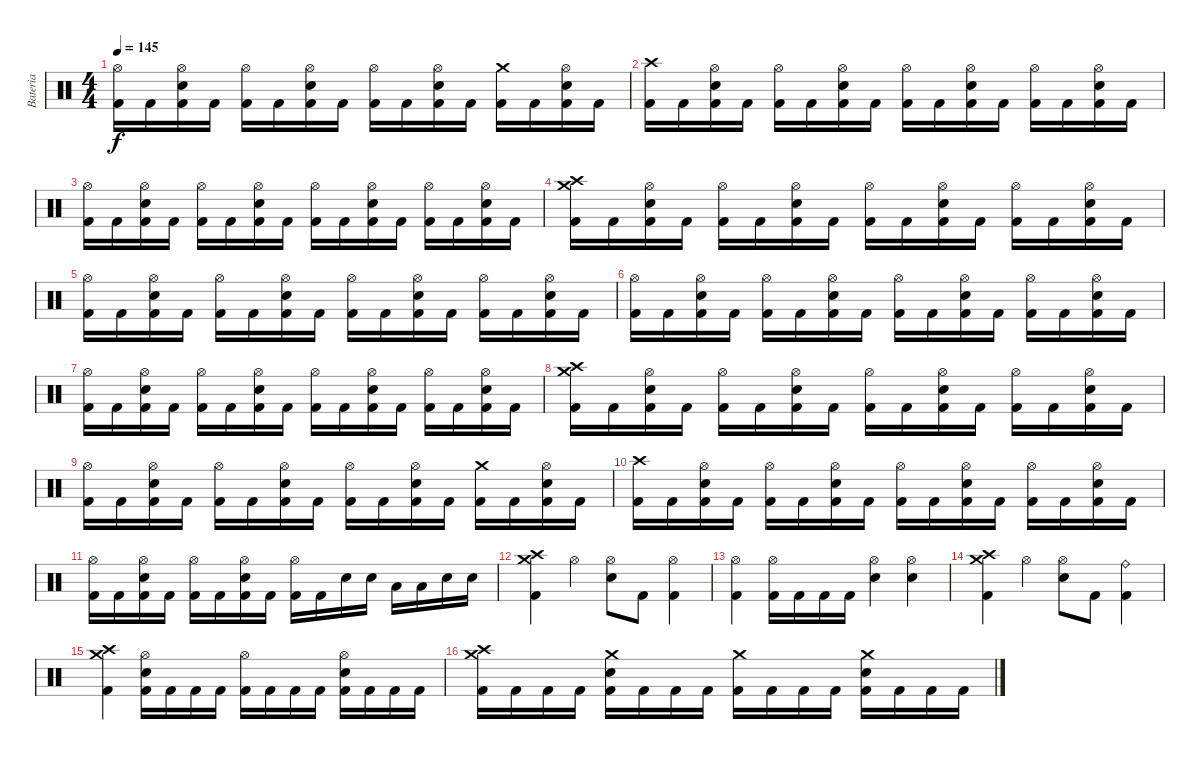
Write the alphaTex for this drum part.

\track ("Bateria" "Bateria") {instrument percussion}
\staff {score}
\articulation defaults
\ts (4 4)
\tempo 145
\clef neutral
\ks c
("Hi-Hat (open)" "Kick (hit) 2").16{dy f} "Kick (hit) 2".16 ("Hi-Hat (open)" "Snare (hit) 2" "Kick (hit) 2").16 "Kick (hit) 2".16 ("Hi-Hat (open)" "Kick (hit) 2").16 "Kick (hit) 2".16 ("Hi-Hat (open)" "Snare (hit) 2" "Kick (hit) 2").16 "Kick (hit) 2".16 ("Hi-Hat (open)" "Kick (hit) 2").16 "Kick (hit) 2".16 ("Hi-Hat (open)" "Snare (hit) 2" "Kick (hit) 2").16 "Kick (hit) 2".16 ("Crash medium (hit)" "Kick (hit) 2").16 "Kick (hit) 2".16 ("Hi-Hat (open)" "Snare (hit) 2" "Kick (hit) 2").16 "Kick (hit) 2".16 |
("Crash high (hit)" "Kick (hit) 2").16 "Kick (hit) 2".16 ("Hi-Hat (open)" "Snare (hit) 2" "Kick (hit) 2").16 "Kick (hit) 2".16 ("Hi-Hat (open)" "Kick (hit) 2").16 "Kick (hit) 2".16 ("Hi-Hat (open)" "Snare (hit) 2" "Kick (hit) 2").16 "Kick (hit) 2".16 ("Hi-Hat (open)" "Kick (hit) 2").16 "Kick (hit) 2".16 ("Hi-Hat (open)" "Snare (hit) 2" "Kick (hit) 2").16 "Kick (hit) 2".16 ("Hi-Hat (open)" "Kick (hit) 2").16 "Kick (hit) 2".16 ("Hi-Hat (open)" "Snare (hit) 2" "Kick (hit) 2").16 "Kick (hit) 2".16 |
("Hi-Hat (open)" "Kick (hit) 2").16 "Kick (hit) 2".16 ("Hi-Hat (open)" "Snare (hit) 2" "Kick (hit) 2").16 "Kick (hit) 2".16 ("Hi-Hat (open)" "Kick (hit) 2").16 "Kick (hit) 2".16 ("Hi-Hat (open)" "Snare (hit) 2" "Kick (hit) 2").16 "Kick (hit) 2".16 ("Hi-Hat (open)" "Kick (hit) 2").16 "Kick (hit) 2".16 ("Hi-Hat (open)" "Snare (hit) 2" "Kick (hit) 2").16 "Kick (hit) 2".16 ("Hi-Hat (open)" "Kick (hit) 2").16 "Kick (hit) 2".16 ("Hi-Hat (open)" "Snare (hit) 2" "Kick (hit) 2").16 "Kick (hit) 2".16 |
("Crash medium (hit)" "Crash high (hit)" "Kick (hit) 2").16 "Kick (hit) 2".16 ("Hi-Hat (open)" "Snare (hit) 2" "Kick (hit) 2").16 "Kick (hit) 2".16 ("Hi-Hat (open)" "Kick (hit) 2").16 "Kick (hit) 2".16 ("Hi-Hat (open)" "Snare (hit) 2" "Kick (hit) 2").16 "Kick (hit) 2".16 ("Hi-Hat (open)" "Kick (hit) 2").16 "Kick (hit) 2".16 ("Hi-Hat (open)" "Snare (hit) 2" "Kick (hit) 2").16 "Kick (hit) 2".16 ("Hi-Hat (open)" "Kick (hit) 2").16 "Kick (hit) 2".16 ("Hi-Hat (open)" "Snare (hit) 2" "Kick (hit) 2").16 "Kick (hit) 2".16 |
("Hi-Hat (open)" "Kick (hit) 2").16 "Kick (hit) 2".16 ("Hi-Hat (open)" "Snare (hit) 2" "Kick (hit) 2").16 "Kick (hit) 2".16 ("Hi-Hat (open)" "Kick (hit) 2").16 "Kick (hit) 2".16 ("Hi-Hat (open)" "Snare (hit) 2" "Kick (hit) 2").16 "Kick (hit) 2".16 ("Hi-Hat (open)" "Kick (hit) 2").16 "Kick (hit) 2".16 ("Hi-Hat (open)" "Snare (hit) 2" "Kick (hit) 2").16 "Kick (hit) 2".16 ("Hi-Hat (open)" "Kick (hit) 2").16 "Kick (hit) 2".16 ("Hi-Hat (open)" "Snare (hit) 2" "Kick (hit) 2").16 "Kick (hit) 2".16 |
("Hi-Hat (open)" "Kick (hit) 2").16 "Kick (hit) 2".16 ("Hi-Hat (open)" "Snare (hit) 2" "Kick (hit) 2").16 "Kick (hit) 2".16 ("Hi-Hat (open)" "Kick (hit) 2").16 "Kick (hit) 2".16 ("Hi-Hat (open)" "Snare (hit) 2" "Kick (hit) 2").16 "Kick (hit) 2".16 ("Hi-Hat (open)" "Kick (hit) 2").16 "Kick (hit) 2".16 ("Hi-Hat (open)" "Snare (hit) 2" "Kick (hit) 2").16 "Kick (hit) 2".16 ("Hi-Hat (open)" "Kick (hit) 2").16 "Kick (hit) 2".16 ("Hi-Hat (open)" "Snare (hit) 2" "Kick (hit) 2").16 "Kick (hit) 2".16 |
("Hi-Hat (open)" "Kick (hit) 2").16 "Kick (hit) 2".16 ("Hi-Hat (open)" "Snare (hit) 2" "Kick (hit) 2").16 "Kick (hit) 2".16 ("Hi-Hat (open)" "Kick (hit) 2").16 "Kick (hit) 2".16 ("Hi-Hat (open)" "Snare (hit) 2" "Kick (hit) 2").16 "Kick (hit) 2".16 ("Hi-Hat (open)" "Kick (hit) 2").16 "Kick (hit) 2".16 ("Hi-Hat (open)" "Snare (hit) 2" "Kick (hit) 2").16 "Kick (hit) 2".16 ("Hi-Hat (open)" "Kick (hit) 2").16 "Kick (hit) 2".16 ("Hi-Hat (open)" "Snare (hit) 2" "Kick (hit) 2").16 "Kick (hit) 2".16 |
("Crash medium (hit)" "Crash high (hit)" "Kick (hit) 2").16 "Kick (hit) 2".16 ("Hi-Hat (open)" "Snare (hit) 2" "Kick (hit) 2").16 "Kick (hit) 2".16 ("Hi-Hat (open)" "Kick (hit) 2").16 "Kick (hit) 2".16 ("Hi-Hat (open)" "Snare (hit) 2" "Kick (hit) 2").16 "Kick (hit) 2".16 ("Hi-Hat (open)" "Kick (hit) 2").16 "Kick (hit) 2".16 ("Hi-Hat (open)" "Snare (hit) 2" "Kick (hit) 2").16 "Kick (hit) 2".16 ("Hi-Hat (open)" "Kick (hit) 2").16 "Kick (hit) 2".16 ("Hi-Hat (open)" "Snare (hit) 2" "Kick (hit) 2").16 "Kick (hit) 2".16 |
("Hi-Hat (open)" "Kick (hit) 2").16 "Kick (hit) 2".16 ("Hi-Hat (open)" "Snare (hit) 2" "Kick (hit) 2").16 "Kick (hit) 2".16 ("Hi-Hat (open)" "Kick (hit) 2").16 "Kick (hit) 2".16 ("Hi-Hat (open)" "Snare (hit) 2" "Kick (hit) 2").16 "Kick (hit) 2".16 ("Hi-Hat (open)" "Kick (hit) 2").16 "Kick (hit) 2".16 ("Hi-Hat (open)" "Snare (hit) 2" "Kick (hit) 2").16 "Kick (hit) 2".16 ("Crash medium (hit)" "Kick (hit) 2").16 "Kick (hit) 2".16 ("Hi-Hat (open)" "Snare (hit) 2" "Kick (hit) 2").16 "Kick (hit) 2".16 |
("Crash high (hit)" "Kick (hit) 2").16 "Kick (hit) 2".16 ("Hi-Hat (open)" "Snare (hit) 2" "Kick (hit) 2").16 "Kick (hit) 2".16 ("Hi-Hat (open)" "Kick (hit) 2").16 "Kick (hit) 2".16 ("Hi-Hat (open)" "Snare (hit) 2" "Kick (hit) 2").16 "Kick (hit) 2".16 ("Hi-Hat (open)" "Kick (hit) 2").16 "Kick (hit) 2".16 ("Hi-Hat (open)" "Snare (hit) 2" "Kick (hit) 2").16 "Kick (hit) 2".16 ("Hi-Hat (open)" "Kick (hit) 2").16 "Kick (hit) 2".16 ("Hi-Hat (open)" "Snare (hit) 2" "Kick (hit) 2").16 "Kick (hit) 2".16 |
("Hi-Hat (open)" "Kick (hit) 2").16 "Kick (hit) 2".16 ("Hi-Hat (open)" "Snare (hit) 2" "Kick (hit) 2").16 "Kick (hit) 2".16 ("Hi-Hat (open)" "Kick (hit) 2").16 "Kick (hit) 2".16 ("Hi-Hat (open)" "Snare (hit) 2" "Kick (hit) 2").16 "Kick (hit) 2".16 ("Hi-Hat (open)" "Kick (hit) 2").16 "Kick (hit) 2".16 "Snare (hit) 2".16 "Snare (hit) 2".16 "Low Tom (hit)".16 "Low Tom (hit)".16 "Snare (hit) 2".16 "Snare (hit) 2".16 |
("Crash high (hit)" "Crash medium (hit)" "Kick (hit) 2").4 "Hi-Hat (open)".4 ("Hi-Hat (open)" "Snare (hit) 2").8 "Kick (hit) 2".8 ("Hi-Hat (open)" "Kick (hit) 2").4 |
("Hi-Hat (open)" "Kick (hit) 2").4 ("Hi-Hat (open)" "Kick (hit) 2").16 "Kick (hit) 2".16 "Kick (hit) 2".16 "Kick (hit) 2".16 ("Hi-Hat (open)" "Snare (hit) 2").4 ("Hi-Hat (open)" "Snare (hit) 2").4 |
("Crash high (hit)" "Crash medium (hit)" "Kick (hit) 2").4 "Hi-Hat (open)".4 ("Hi-Hat (open)" "Snare (hit) 2").8 "Kick (hit) 2".8 ("Ride (bell)" "Kick (hit) 2").4 |
("Crash high (hit)" "Crash medium (hit)" "Kick (hit) 2").4 ("Hi-Hat (open)" "Snare (hit) 2" "Kick (hit) 2").16 "Kick (hit) 2".16 "Kick (hit) 2".16 "Kick (hit) 2".16 ("Hi-Hat (open)" "Kick (hit) 2").16 "Kick (hit) 2".16 "Kick (hit) 2".16 "Kick (hit) 2".16 ("Hi-Hat (open)" "Snare (hit) 2" "Kick (hit) 2").16 "Kick (hit) 2".16 "Kick (hit) 2".16 "Kick (hit) 2".16 |
("Crash high (hit)" "Crash medium (hit)" "Kick (hit) 2").16 "Kick (hit) 2".16 "Kick (hit) 2".16 "Kick (hit) 2".16 ("Crash medium (hit)" "Snare (hit) 2" "Kick (hit) 2").16 "Kick (hit) 2".16 "Kick (hit) 2".16 "Kick (hit) 2".16 ("Crash medium (hit)" "Kick (hit) 2").16 "Kick (hit) 2".16 "Kick (hit) 2".16 "Kick (hit) 2".16 ("Crash medium (hit)" "Snare (hit) 2" "Kick (hit) 2").16 "Kick (hit) 2".16 "Kick (hit) 2".16 "Kick (hit) 2".16
